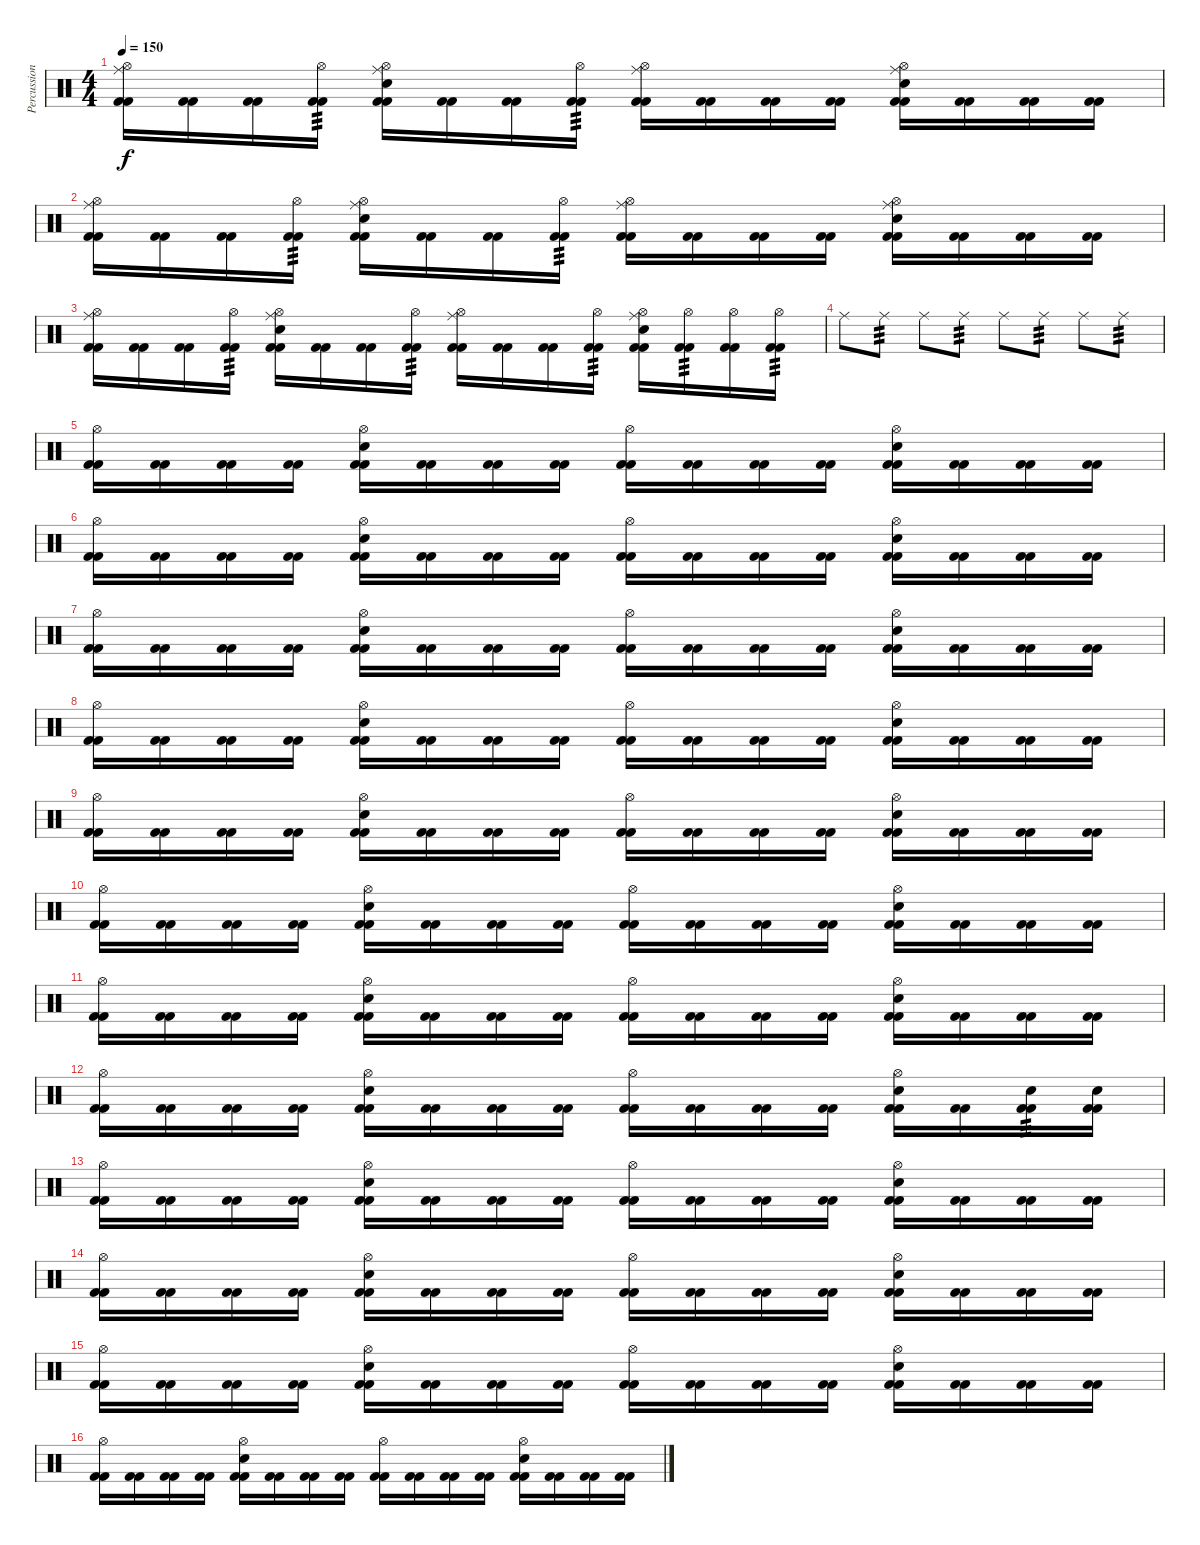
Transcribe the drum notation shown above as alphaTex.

\track ("Percussions" "Percussion") {instrument percussion}
\staff {score}
\articulation defaults
\ts (4 4)
\tempo 150
\clef neutral
\ks c
("Ride (middle)" "Hi-Hat (open)" "Kick (hit) 2" "Kick (hit) 2").16{dy f} ("Kick (hit) 2" "Kick (hit) 2").16 ("Kick (hit) 2" "Kick (hit) 2").16 ("Hi-Hat (open)" "Kick (hit) 2" "Kick (hit) 2").16{tp 3} ("Ride (middle)" "Snare (hit) 2" "Hi-Hat (open)" "Kick (hit) 2" "Kick (hit) 2").16 ("Kick (hit) 2" "Kick (hit) 2").16 ("Kick (hit) 2" "Kick (hit) 2").16 ("Hi-Hat (open)" "Kick (hit) 2" "Kick (hit) 2").16{tp 3} ("Ride (middle)" "Hi-Hat (open)" "Kick (hit) 2" "Kick (hit) 2").16 ("Kick (hit) 2" "Kick (hit) 2").16 ("Kick (hit) 2" "Kick (hit) 2").16 ("Kick (hit) 2" "Kick (hit) 2").16 ("Ride (middle)" "Snare (hit) 2" "Hi-Hat (open)" "Kick (hit) 2" "Kick (hit) 2").16 ("Kick (hit) 2" "Kick (hit) 2").16 ("Kick (hit) 2" "Kick (hit) 2").16 ("Kick (hit) 2" "Kick (hit) 2").16 |
("Ride (middle)" "Hi-Hat (open)" "Kick (hit) 2" "Kick (hit) 2").16 ("Kick (hit) 2" "Kick (hit) 2").16 ("Kick (hit) 2" "Kick (hit) 2").16 ("Hi-Hat (open)" "Kick (hit) 2" "Kick (hit) 2").16{tp 3} ("Ride (middle)" "Snare (hit) 2" "Hi-Hat (open)" "Kick (hit) 2" "Kick (hit) 2").16 ("Kick (hit) 2" "Kick (hit) 2").16 ("Kick (hit) 2" "Kick (hit) 2").16 ("Hi-Hat (open)" "Kick (hit) 2" "Kick (hit) 2").16{tp 3} ("Ride (middle)" "Hi-Hat (open)" "Kick (hit) 2" "Kick (hit) 2").16 ("Kick (hit) 2" "Kick (hit) 2").16 ("Kick (hit) 2" "Kick (hit) 2").16 ("Kick (hit) 2" "Kick (hit) 2").16 ("Ride (middle)" "Snare (hit) 2" "Hi-Hat (open)" "Kick (hit) 2" "Kick (hit) 2").16 ("Kick (hit) 2" "Kick (hit) 2").16 ("Kick (hit) 2" "Kick (hit) 2").16 ("Kick (hit) 2" "Kick (hit) 2").16 |
("Ride (middle)" "Hi-Hat (open)" "Kick (hit) 2" "Kick (hit) 2").16 ("Kick (hit) 2" "Kick (hit) 2").16 ("Kick (hit) 2" "Kick (hit) 2").16 ("Hi-Hat (open)" "Kick (hit) 2" "Kick (hit) 2").16{tp 3} ("Ride (middle)" "Snare (hit) 2" "Hi-Hat (open)" "Kick (hit) 2" "Kick (hit) 2").16 ("Kick (hit) 2" "Kick (hit) 2").16 ("Kick (hit) 2" "Kick (hit) 2").16 ("Hi-Hat (open)" "Kick (hit) 2" "Kick (hit) 2").16{tp 3} ("Ride (middle)" "Hi-Hat (open)" "Kick (hit) 2" "Kick (hit) 2").16 ("Kick (hit) 2" "Kick (hit) 2").16 ("Kick (hit) 2" "Kick (hit) 2").16 ("Hi-Hat (open)" "Kick (hit) 2" "Kick (hit) 2").16{tp 3} ("Ride (middle)" "Snare (hit) 2" "Hi-Hat (open)" "Kick (hit) 2" "Kick (hit) 2").16 ("Hi-Hat (open)" "Kick (hit) 2" "Kick (hit) 2").16{tp 3} ("Hi-Hat (open)" "Kick (hit) 2" "Kick (hit) 2").16 ("Hi-Hat (open)" "Kick (hit) 2" "Kick (hit) 2").16{tp 3} |
"Ride (middle)".8 "Ride (middle)".8{tp 3} "Ride (middle)".8 "Ride (middle)".8{tp 3} "Ride (middle)".8 "Ride (middle)".8{tp 3} "Ride (middle)".8 "Ride (middle)".8{tp 3} |
("Hi-Hat (open)" "Kick (hit) 2" "Kick (hit) 2").16 ("Kick (hit) 2" "Kick (hit) 2").16 ("Kick (hit) 2" "Kick (hit) 2").16 ("Kick (hit) 2" "Kick (hit) 2").16 ("Snare (hit) 2" "Hi-Hat (open)" "Kick (hit) 2" "Kick (hit) 2").16 ("Kick (hit) 2" "Kick (hit) 2").16 ("Kick (hit) 2" "Kick (hit) 2").16 ("Kick (hit) 2" "Kick (hit) 2").16 ("Hi-Hat (open)" "Kick (hit) 2" "Kick (hit) 2").16 ("Kick (hit) 2" "Kick (hit) 2").16 ("Kick (hit) 2" "Kick (hit) 2").16 ("Kick (hit) 2" "Kick (hit) 2").16 ("Snare (hit) 2" "Hi-Hat (open)" "Kick (hit) 2" "Kick (hit) 2").16 ("Kick (hit) 2" "Kick (hit) 2").16 ("Kick (hit) 2" "Kick (hit) 2").16 ("Kick (hit) 2" "Kick (hit) 2").16 |
("Hi-Hat (open)" "Kick (hit) 2" "Kick (hit) 2").16 ("Kick (hit) 2" "Kick (hit) 2").16 ("Kick (hit) 2" "Kick (hit) 2").16 ("Kick (hit) 2" "Kick (hit) 2").16 ("Snare (hit) 2" "Hi-Hat (open)" "Kick (hit) 2" "Kick (hit) 2").16 ("Kick (hit) 2" "Kick (hit) 2").16 ("Kick (hit) 2" "Kick (hit) 2").16 ("Kick (hit) 2" "Kick (hit) 2").16 ("Hi-Hat (open)" "Kick (hit) 2" "Kick (hit) 2").16 ("Kick (hit) 2" "Kick (hit) 2").16 ("Kick (hit) 2" "Kick (hit) 2").16 ("Kick (hit) 2" "Kick (hit) 2").16 ("Snare (hit) 2" "Hi-Hat (open)" "Kick (hit) 2" "Kick (hit) 2").16 ("Kick (hit) 2" "Kick (hit) 2").16 ("Kick (hit) 2" "Kick (hit) 2").16 ("Kick (hit) 2" "Kick (hit) 2").16 |
("Hi-Hat (open)" "Kick (hit) 2" "Kick (hit) 2").16 ("Kick (hit) 2" "Kick (hit) 2").16 ("Kick (hit) 2" "Kick (hit) 2").16 ("Kick (hit) 2" "Kick (hit) 2").16 ("Snare (hit) 2" "Hi-Hat (open)" "Kick (hit) 2" "Kick (hit) 2").16 ("Kick (hit) 2" "Kick (hit) 2").16 ("Kick (hit) 2" "Kick (hit) 2").16 ("Kick (hit) 2" "Kick (hit) 2").16 ("Hi-Hat (open)" "Kick (hit) 2" "Kick (hit) 2").16 ("Kick (hit) 2" "Kick (hit) 2").16 ("Kick (hit) 2" "Kick (hit) 2").16 ("Kick (hit) 2" "Kick (hit) 2").16 ("Snare (hit) 2" "Hi-Hat (open)" "Kick (hit) 2" "Kick (hit) 2").16 ("Kick (hit) 2" "Kick (hit) 2").16 ("Kick (hit) 2" "Kick (hit) 2").16 ("Kick (hit) 2" "Kick (hit) 2").16 |
("Hi-Hat (open)" "Kick (hit) 2" "Kick (hit) 2").16 ("Kick (hit) 2" "Kick (hit) 2").16 ("Kick (hit) 2" "Kick (hit) 2").16 ("Kick (hit) 2" "Kick (hit) 2").16 ("Snare (hit) 2" "Hi-Hat (open)" "Kick (hit) 2" "Kick (hit) 2").16 ("Kick (hit) 2" "Kick (hit) 2").16 ("Kick (hit) 2" "Kick (hit) 2").16 ("Kick (hit) 2" "Kick (hit) 2").16 ("Hi-Hat (open)" "Kick (hit) 2" "Kick (hit) 2").16 ("Kick (hit) 2" "Kick (hit) 2").16 ("Kick (hit) 2" "Kick (hit) 2").16 ("Kick (hit) 2" "Kick (hit) 2").16 ("Snare (hit) 2" "Hi-Hat (open)" "Kick (hit) 2" "Kick (hit) 2").16 ("Kick (hit) 2" "Kick (hit) 2").16 ("Kick (hit) 2" "Kick (hit) 2").16 ("Kick (hit) 2" "Kick (hit) 2").16 |
("Hi-Hat (open)" "Kick (hit) 2" "Kick (hit) 2").16 ("Kick (hit) 2" "Kick (hit) 2").16 ("Kick (hit) 2" "Kick (hit) 2").16 ("Kick (hit) 2" "Kick (hit) 2").16 ("Snare (hit) 2" "Hi-Hat (open)" "Kick (hit) 2" "Kick (hit) 2").16 ("Kick (hit) 2" "Kick (hit) 2").16 ("Kick (hit) 2" "Kick (hit) 2").16 ("Kick (hit) 2" "Kick (hit) 2").16 ("Hi-Hat (open)" "Kick (hit) 2" "Kick (hit) 2").16 ("Kick (hit) 2" "Kick (hit) 2").16 ("Kick (hit) 2" "Kick (hit) 2").16 ("Kick (hit) 2" "Kick (hit) 2").16 ("Snare (hit) 2" "Hi-Hat (open)" "Kick (hit) 2" "Kick (hit) 2").16 ("Kick (hit) 2" "Kick (hit) 2").16 ("Kick (hit) 2" "Kick (hit) 2").16 ("Kick (hit) 2" "Kick (hit) 2").16 |
("Hi-Hat (open)" "Kick (hit) 2" "Kick (hit) 2").16 ("Kick (hit) 2" "Kick (hit) 2").16 ("Kick (hit) 2" "Kick (hit) 2").16 ("Kick (hit) 2" "Kick (hit) 2").16 ("Snare (hit) 2" "Hi-Hat (open)" "Kick (hit) 2" "Kick (hit) 2").16 ("Kick (hit) 2" "Kick (hit) 2").16 ("Kick (hit) 2" "Kick (hit) 2").16 ("Kick (hit) 2" "Kick (hit) 2").16 ("Hi-Hat (open)" "Kick (hit) 2" "Kick (hit) 2").16 ("Kick (hit) 2" "Kick (hit) 2").16 ("Kick (hit) 2" "Kick (hit) 2").16 ("Kick (hit) 2" "Kick (hit) 2").16 ("Snare (hit) 2" "Hi-Hat (open)" "Kick (hit) 2" "Kick (hit) 2").16 ("Kick (hit) 2" "Kick (hit) 2").16 ("Kick (hit) 2" "Kick (hit) 2").16 ("Kick (hit) 2" "Kick (hit) 2").16 |
("Hi-Hat (open)" "Kick (hit) 2" "Kick (hit) 2").16 ("Kick (hit) 2" "Kick (hit) 2").16 ("Kick (hit) 2" "Kick (hit) 2").16 ("Kick (hit) 2" "Kick (hit) 2").16 ("Snare (hit) 2" "Hi-Hat (open)" "Kick (hit) 2" "Kick (hit) 2").16 ("Kick (hit) 2" "Kick (hit) 2").16 ("Kick (hit) 2" "Kick (hit) 2").16 ("Kick (hit) 2" "Kick (hit) 2").16 ("Hi-Hat (open)" "Kick (hit) 2" "Kick (hit) 2").16 ("Kick (hit) 2" "Kick (hit) 2").16 ("Kick (hit) 2" "Kick (hit) 2").16 ("Kick (hit) 2" "Kick (hit) 2").16 ("Snare (hit) 2" "Hi-Hat (open)" "Kick (hit) 2" "Kick (hit) 2").16 ("Kick (hit) 2" "Kick (hit) 2").16 ("Kick (hit) 2" "Kick (hit) 2").16 ("Kick (hit) 2" "Kick (hit) 2").16 |
("Hi-Hat (open)" "Kick (hit) 2" "Kick (hit) 2").16 ("Kick (hit) 2" "Kick (hit) 2").16 ("Kick (hit) 2" "Kick (hit) 2").16 ("Kick (hit) 2" "Kick (hit) 2").16 ("Snare (hit) 2" "Hi-Hat (open)" "Kick (hit) 2" "Kick (hit) 2").16 ("Kick (hit) 2" "Kick (hit) 2").16 ("Kick (hit) 2" "Kick (hit) 2").16 ("Kick (hit) 2" "Kick (hit) 2").16 ("Hi-Hat (open)" "Kick (hit) 2" "Kick (hit) 2").16 ("Kick (hit) 2" "Kick (hit) 2").16 ("Kick (hit) 2" "Kick (hit) 2").16 ("Kick (hit) 2" "Kick (hit) 2").16 ("Snare (hit) 2" "Hi-Hat (open)" "Kick (hit) 2" "Kick (hit) 2").16 ("Kick (hit) 2" "Kick (hit) 2").16 ("Snare (hit) 2" "Kick (hit) 2" "Kick (hit) 2").16{tp 3} ("Snare (hit) 2" "Kick (hit) 2" "Kick (hit) 2").16 |
("Hi-Hat (open)" "Kick (hit) 2" "Kick (hit) 2").16 ("Kick (hit) 2" "Kick (hit) 2").16 ("Kick (hit) 2" "Kick (hit) 2").16 ("Kick (hit) 2" "Kick (hit) 2").16 ("Snare (hit) 2" "Hi-Hat (open)" "Kick (hit) 2" "Kick (hit) 2").16 ("Kick (hit) 2" "Kick (hit) 2").16 ("Kick (hit) 2" "Kick (hit) 2").16 ("Kick (hit) 2" "Kick (hit) 2").16 ("Hi-Hat (open)" "Kick (hit) 2" "Kick (hit) 2").16 ("Kick (hit) 2" "Kick (hit) 2").16 ("Kick (hit) 2" "Kick (hit) 2").16 ("Kick (hit) 2" "Kick (hit) 2").16 ("Snare (hit) 2" "Hi-Hat (open)" "Kick (hit) 2" "Kick (hit) 2").16 ("Kick (hit) 2" "Kick (hit) 2").16 ("Kick (hit) 2" "Kick (hit) 2").16 ("Kick (hit) 2" "Kick (hit) 2").16 |
("Hi-Hat (open)" "Kick (hit) 2" "Kick (hit) 2").16 ("Kick (hit) 2" "Kick (hit) 2").16 ("Kick (hit) 2" "Kick (hit) 2").16 ("Kick (hit) 2" "Kick (hit) 2").16 ("Snare (hit) 2" "Hi-Hat (open)" "Kick (hit) 2" "Kick (hit) 2").16 ("Kick (hit) 2" "Kick (hit) 2").16 ("Kick (hit) 2" "Kick (hit) 2").16 ("Kick (hit) 2" "Kick (hit) 2").16 ("Hi-Hat (open)" "Kick (hit) 2" "Kick (hit) 2").16 ("Kick (hit) 2" "Kick (hit) 2").16 ("Kick (hit) 2" "Kick (hit) 2").16 ("Kick (hit) 2" "Kick (hit) 2").16 ("Snare (hit) 2" "Hi-Hat (open)" "Kick (hit) 2" "Kick (hit) 2").16 ("Kick (hit) 2" "Kick (hit) 2").16 ("Kick (hit) 2" "Kick (hit) 2").16 ("Kick (hit) 2" "Kick (hit) 2").16 |
("Hi-Hat (open)" "Kick (hit) 2" "Kick (hit) 2").16 ("Kick (hit) 2" "Kick (hit) 2").16 ("Kick (hit) 2" "Kick (hit) 2").16 ("Kick (hit) 2" "Kick (hit) 2").16 ("Snare (hit) 2" "Hi-Hat (open)" "Kick (hit) 2" "Kick (hit) 2").16 ("Kick (hit) 2" "Kick (hit) 2").16 ("Kick (hit) 2" "Kick (hit) 2").16 ("Kick (hit) 2" "Kick (hit) 2").16 ("Hi-Hat (open)" "Kick (hit) 2" "Kick (hit) 2").16 ("Kick (hit) 2" "Kick (hit) 2").16 ("Kick (hit) 2" "Kick (hit) 2").16 ("Kick (hit) 2" "Kick (hit) 2").16 ("Snare (hit) 2" "Hi-Hat (open)" "Kick (hit) 2" "Kick (hit) 2").16 ("Kick (hit) 2" "Kick (hit) 2").16 ("Kick (hit) 2" "Kick (hit) 2").16 ("Kick (hit) 2" "Kick (hit) 2").16 |
("Hi-Hat (open)" "Kick (hit) 2" "Kick (hit) 2").16 ("Kick (hit) 2" "Kick (hit) 2").16 ("Kick (hit) 2" "Kick (hit) 2").16 ("Kick (hit) 2" "Kick (hit) 2").16 ("Snare (hit) 2" "Hi-Hat (open)" "Kick (hit) 2" "Kick (hit) 2").16 ("Kick (hit) 2" "Kick (hit) 2").16 ("Kick (hit) 2" "Kick (hit) 2").16 ("Kick (hit) 2" "Kick (hit) 2").16 ("Hi-Hat (open)" "Kick (hit) 2" "Kick (hit) 2").16 ("Kick (hit) 2" "Kick (hit) 2").16 ("Kick (hit) 2" "Kick (hit) 2").16 ("Kick (hit) 2" "Kick (hit) 2").16 ("Snare (hit) 2" "Hi-Hat (open)" "Kick (hit) 2" "Kick (hit) 2").16 ("Kick (hit) 2" "Kick (hit) 2").16 ("Kick (hit) 2" "Kick (hit) 2").16 ("Kick (hit) 2" "Kick (hit) 2").16
